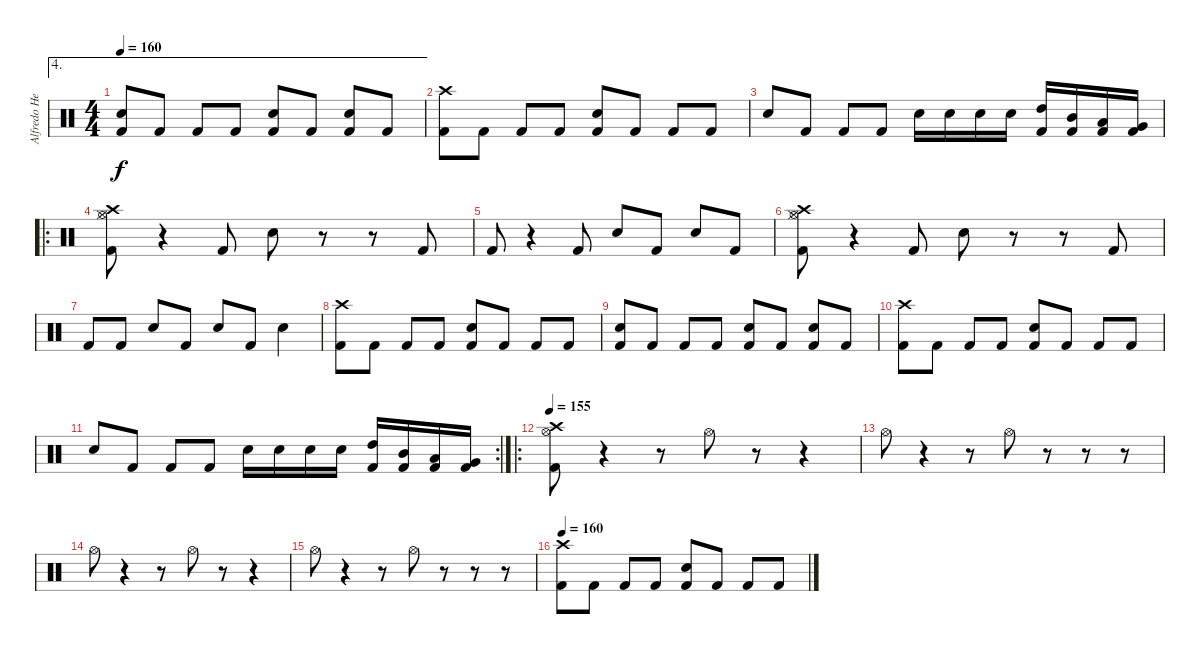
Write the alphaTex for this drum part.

\track ("Alfredo Hernandez" "Alfredo He") {instrument percussion}
\staff {score}
\articulation defaults
\ae 4
\ts (4 4)
\tempo 160
\clef neutral
\ks c
("Electric Snare (hit)" "Kick (hit) 2").8{dy f} "Kick (hit) 2".8 "Kick (hit) 2".8 "Kick (hit) 2".8 ("Electric Snare (hit)" "Kick (hit) 2").8 "Kick (hit) 2".8 ("Electric Snare (hit)" "Kick (hit) 2").8 "Kick (hit) 2".8 |
("Crash high (hit)" "Kick (hit) 2").8 "Kick (hit) 2".8 "Kick (hit) 2".8 "Kick (hit) 2".8 ("Electric Snare (hit)" "Kick (hit) 2").8 "Kick (hit) 2".8 "Kick (hit) 2".8 "Kick (hit) 2".8 |
"Electric Snare (hit)".8 "Kick (hit) 2".8 "Kick (hit) 2".8 "Kick (hit) 2".8 "Electric Snare (hit)".16 "Electric Snare (hit)".16 "Electric Snare (hit)".16 "Electric Snare (hit)".16 ("High Tom (hit)" "Kick (hit) 2").16 ("Mid Tom (hit)" "Kick (hit) 2").16 ("Low Tom (hit)" "Kick (hit) 2").16 ("Very Low Tom (hit)" "Kick (hit) 2").16 |
\ro
("Crash high (hit)" "Hi-Hat (open)" "Hi-Hat (closed)" "Kick (hit) 2").8 r.4 "Kick (hit) 2".8 "Electric Snare (hit)".8 r.8 r.8 "Kick (hit) 2".8 |
"Kick (hit) 2".8 r.4 "Kick (hit) 2".8 "Electric Snare (hit)".8 "Kick (hit) 2".8 "Electric Snare (hit)".8 "Kick (hit) 2".8 |
("Crash high (hit)" "Hi-Hat (open)" "Hi-Hat (closed)" "Kick (hit) 2").8 r.4 "Kick (hit) 2".8 "Electric Snare (hit)".8 r.8 r.8 "Kick (hit) 2".8 |
"Kick (hit) 2".8 "Kick (hit) 2".8 "Electric Snare (hit)".8 "Kick (hit) 2".8 "Electric Snare (hit)".8 "Kick (hit) 2".8 "Electric Snare (hit)".4 |
("Crash high (hit)" "Kick (hit) 2").8 "Kick (hit) 2".8 "Kick (hit) 2".8 "Kick (hit) 2".8 ("Electric Snare (hit)" "Kick (hit) 2").8 "Kick (hit) 2".8 "Kick (hit) 2".8 "Kick (hit) 2".8 |
("Electric Snare (hit)" "Kick (hit) 2").8 "Kick (hit) 2".8 "Kick (hit) 2".8 "Kick (hit) 2".8 ("Electric Snare (hit)" "Kick (hit) 2").8 "Kick (hit) 2".8 ("Electric Snare (hit)" "Kick (hit) 2").8 "Kick (hit) 2".8 |
("Crash high (hit)" "Kick (hit) 2").8 "Kick (hit) 2".8 "Kick (hit) 2".8 "Kick (hit) 2".8 ("Electric Snare (hit)" "Kick (hit) 2").8 "Kick (hit) 2".8 "Kick (hit) 2".8 "Kick (hit) 2".8 |
\rc 2 "Electric Snare (hit)".8 "Kick (hit) 2".8 "Kick (hit) 2".8 "Kick (hit) 2".8 "Electric Snare (hit)".16 "Electric Snare (hit)".16 "Electric Snare (hit)".16 "Electric Snare (hit)".16
("High Tom (hit)" "Kick (hit) 2").16 ("Mid Tom (hit)" "Kick (hit) 2").16 ("Low Tom (hit)" "Kick (hit) 2").16 ("Very Low Tom (hit)" "Kick (hit) 2").16 |
\ro
\tempo 155
("Crash high (hit)" "Hi-Hat (open)" "Kick (hit) 2").8 r.4 r.8 "Hi-Hat (open)".8 r.8 r.4 |
"Hi-Hat (open)".8 r.4 r.8 "Hi-Hat (open)".8 r.8 r.8 r.8 |
"Hi-Hat (open)".8 r.4 r.8 "Hi-Hat (open)".8 r.8 r.4 |
"Hi-Hat (open)".8 r.4 r.8 "Hi-Hat (open)".8 r.8 r.8 r.8 |
\tempo 160
("Crash high (hit)" "Kick (hit) 2").8 "Kick (hit) 2".8 "Kick (hit) 2".8 "Kick (hit) 2".8 ("Electric Snare (hit)" "Kick (hit) 2").8 "Kick (hit) 2".8 "Kick (hit) 2".8 "Kick (hit) 2".8
